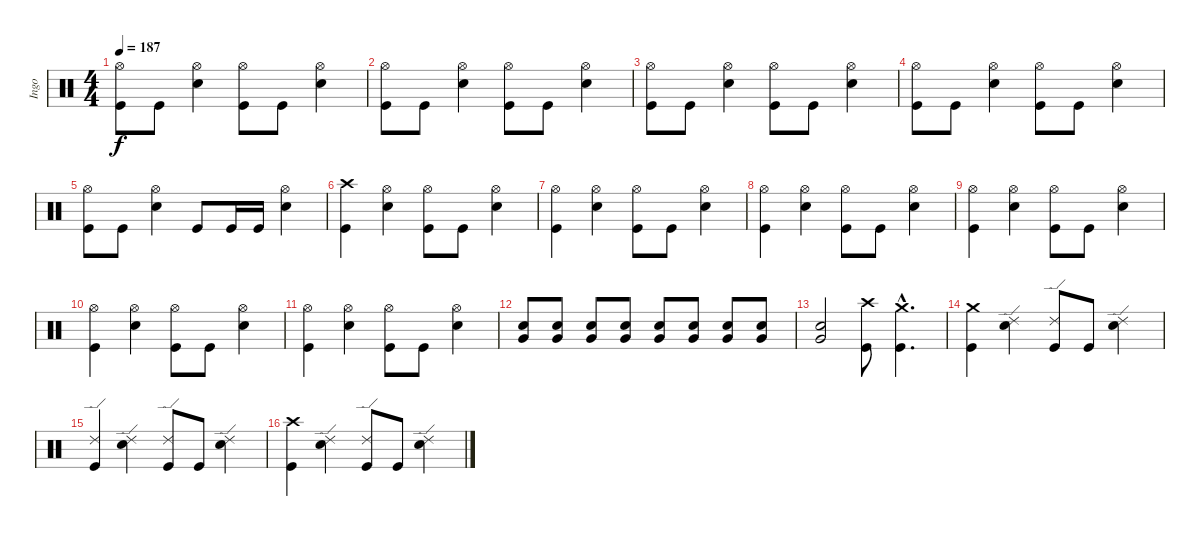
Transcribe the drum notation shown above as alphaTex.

\track ("Ingo" "Ingo") {instrument percussion}
\staff {score}
\articulation defaults
\ts (4 4)
\tempo 187
\clef neutral
\ks c
("Hi-Hat (open)" "Kick (hit)").8{dy f} "Kick (hit)".8 ("Hi-Hat (open)" "Snare (hit) 2").4 ("Hi-Hat (open)" "Kick (hit)").8 "Kick (hit)".8 ("Hi-Hat (open)" "Snare (hit) 2").4 |
("Hi-Hat (open)" "Kick (hit)").8 "Kick (hit)".8 ("Hi-Hat (open)" "Snare (hit) 2").4 ("Hi-Hat (open)" "Kick (hit)").8 "Kick (hit)".8 ("Hi-Hat (open)" "Snare (hit) 2").4 |
("Hi-Hat (open)" "Kick (hit)").8 "Kick (hit)".8 ("Hi-Hat (open)" "Snare (hit) 2").4 ("Hi-Hat (open)" "Kick (hit)").8 "Kick (hit)".8 ("Hi-Hat (open)" "Snare (hit) 2").4 |
("Hi-Hat (open)" "Kick (hit)").8 "Kick (hit)".8 ("Hi-Hat (open)" "Snare (hit) 2").4 ("Hi-Hat (open)" "Kick (hit)").8 "Kick (hit)".8 ("Hi-Hat (open)" "Snare (hit) 2").4 |
("Hi-Hat (open)" "Kick (hit)").8 "Kick (hit)".8 ("Hi-Hat (open)" "Snare (hit) 2").4 "Kick (hit)".8 "Kick (hit)".16 "Kick (hit)".16 ("Hi-Hat (open)" "Snare (hit) 2").4 |
("Crash high (hit)" "Kick (hit)").4 ("Hi-Hat (open)" "Snare (hit) 2").4 ("Hi-Hat (open)" "Kick (hit)").8 "Kick (hit)".8 ("Hi-Hat (open)" "Snare (hit) 2").4 |
("Hi-Hat (open)" "Kick (hit)").4 ("Hi-Hat (open)" "Snare (hit) 2").4 ("Hi-Hat (open)" "Kick (hit)").8 "Kick (hit)".8 ("Hi-Hat (open)" "Snare (hit) 2").4 |
("Hi-Hat (open)" "Kick (hit)").4 ("Hi-Hat (open)" "Snare (hit) 2").4 ("Hi-Hat (open)" "Kick (hit)").8 "Kick (hit)".8 ("Hi-Hat (open)" "Snare (hit) 2").4 |
("Hi-Hat (open)" "Kick (hit)").4 ("Hi-Hat (open)" "Snare (hit) 2").4 ("Hi-Hat (open)" "Kick (hit)").8 "Kick (hit)".8 ("Hi-Hat (open)" "Snare (hit) 2").4 |
("Hi-Hat (open)" "Kick (hit)").4 ("Hi-Hat (open)" "Snare (hit) 2").4 ("Hi-Hat (open)" "Kick (hit)").8 "Kick (hit)".8 ("Hi-Hat (open)" "Snare (hit) 2").4 |
("Hi-Hat (open)" "Kick (hit)").4 ("Hi-Hat (open)" "Snare (hit) 2").4 ("Hi-Hat (open)" "Kick (hit)").8 "Kick (hit)".8 ("Hi-Hat (open)" "Snare (hit) 2").4 |
("Snare (hit) 2" "Very Low Tom (hit)").8{volume 8} ("Snare (hit) 2" "Very Low Tom (hit)").8{volume 13} ("Snare (hit) 2" "Very Low Tom (hit)").8 ("Snare (hit) 2" "Very Low Tom (hit)").8 ("Snare (hit) 2" "Very Low Tom (hit)").8 ("Snare (hit) 2" "Very Low Tom (hit)").8 ("Snare (hit) 2" "Very Low Tom (hit)").8 ("Snare (hit) 2" "Very Low Tom (hit)").8 |
("Snare (hit) 2" "Very Low Tom (hit)").2 ("Crash high (hit)" "Kick (hit)").8 ("Crash medium (hit)"{hac} "Kick (hit)"{hac}).4{d} |
("Crash medium (hit)" "Kick (hit)").4 ("Ride (edge) 2" "Snare (hit) 2").4 ("Ride (edge) 2" "Kick (hit)").8 "Kick (hit)".8 ("Ride (edge) 2" "Snare (hit) 2").4 |
("Ride (edge) 2" "Kick (hit)").4 ("Ride (edge) 2" "Snare (hit) 2").4 ("Ride (edge) 2" "Kick (hit)").8 "Kick (hit)".8 ("Ride (edge) 2" "Snare (hit) 2").4 |
("Crash high (hit)" "Kick (hit)").4 ("Ride (edge) 2" "Snare (hit) 2").4 ("Ride (edge) 2" "Kick (hit)").8 "Kick (hit)".8 ("Ride (edge) 2" "Snare (hit) 2").4
